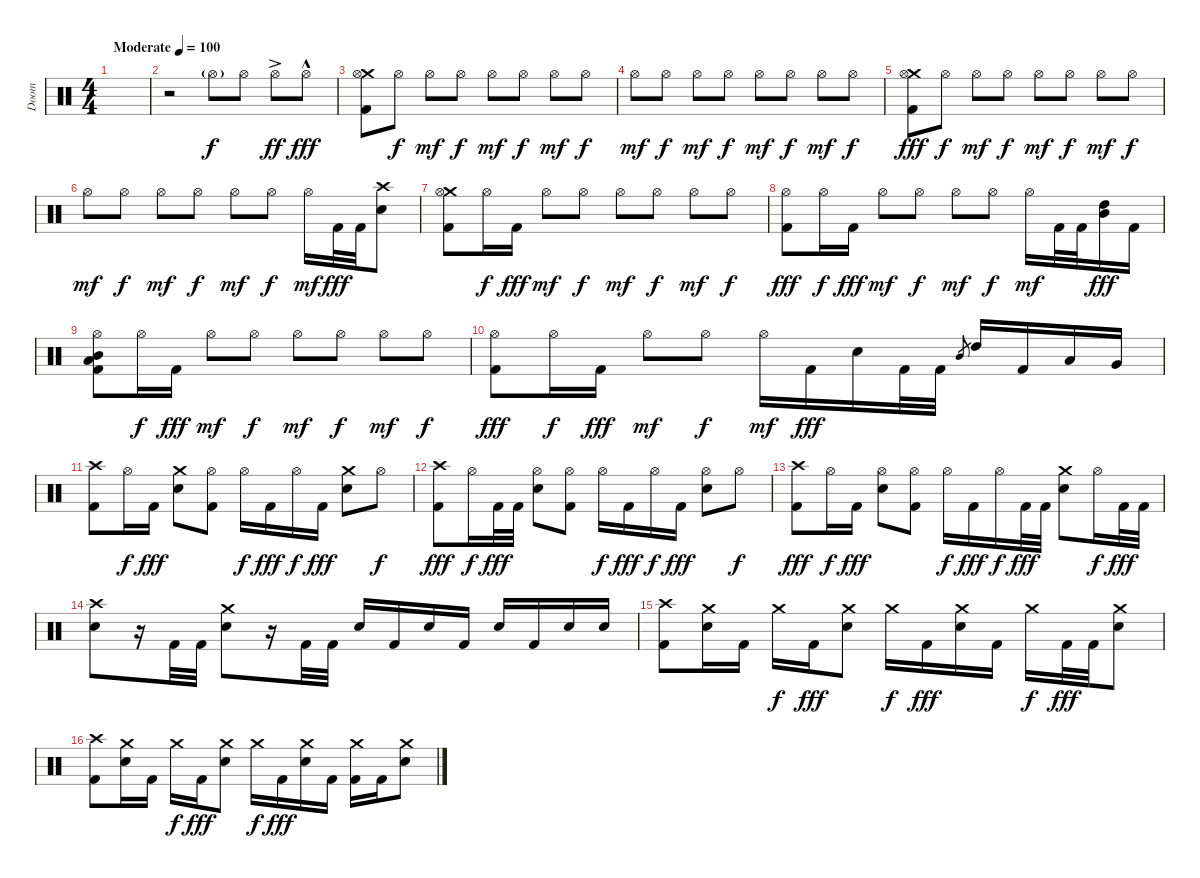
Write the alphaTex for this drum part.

\track ("Doom" "Doom") {instrument percussion}
\staff {score}
\articulation defaults
\ts (4 4)
\tempo (100 "Moderate")
\clef neutral
\ks c
|
r.2 "Hi-Hat (open)"{g}.8 "Hi-Hat (open)".8{dy f} "Hi-Hat (open)"{ac}.8{dy ff} "Hi-Hat (open)"{hac}.8{dy fff} |
("Crash medium (hit)" "Hi-Hat (open)" "Kick (hit) 2").8 "Hi-Hat (open)".8{dy f} "Hi-Hat (open)".8{dy mf} "Hi-Hat (open)".8{dy f} "Hi-Hat (open)".8{dy mf} "Hi-Hat (open)".8{dy f} "Hi-Hat (open)".8{dy mf} "Hi-Hat (open)".8{dy f} |
"Hi-Hat (open)".8{dy mf} "Hi-Hat (open)".8{dy f} "Hi-Hat (open)".8{dy mf} "Hi-Hat (open)".8{dy f} "Hi-Hat (open)".8{dy mf} "Hi-Hat (open)".8{dy f} "Hi-Hat (open)".8{dy mf} "Hi-Hat (open)".8{dy f} |
("Crash medium (hit)" "Hi-Hat (open)" "Kick (hit) 2").8{dy fff} "Hi-Hat (open)".8{dy f} "Hi-Hat (open)".8{dy mf} "Hi-Hat (open)".8{dy f} "Hi-Hat (open)".8{dy mf} "Hi-Hat (open)".8{dy f} "Hi-Hat (open)".8{dy mf} "Hi-Hat (open)".8{dy f} |
"Hi-Hat (open)".8{dy mf} "Hi-Hat (open)".8{dy f} "Hi-Hat (open)".8{dy mf} "Hi-Hat (open)".8{dy f} "Hi-Hat (open)".8{dy mf} "Hi-Hat (open)".8{dy f} "Hi-Hat (open)".16{dy mf} "Kick (hit) 2".32{dy fff} "Kick (hit) 2".32 ("Crash high (hit)" "Electric Snare (hit)").8 |
("Crash medium (hit)" "Hi-Hat (open)" "Kick (hit) 2").8 "Hi-Hat (open)".16{dy f} "Kick (hit) 2".16{dy fff} "Hi-Hat (open)".8{dy mf} "Hi-Hat (open)".8{dy f} "Hi-Hat (open)".8{dy mf} "Hi-Hat (open)".8{dy f} "Hi-Hat (open)".8{dy mf} "Hi-Hat (open)".8{dy f} |
("Hi-Hat (open)" "Kick (hit) 2").8{dy fff} "Hi-Hat (open)".16{dy f} "Kick (hit) 2".16{dy fff} "Hi-Hat (open)".8{dy mf} "Hi-Hat (open)".8{dy f} "Hi-Hat (open)".8{dy mf} "Hi-Hat (open)".8{dy f} "Hi-Hat (open)".16{dy mf} "Kick (hit) 2".32 "Kick (hit) 2".32 ("High Tom (hit)" "Mid Tom (hit)").16{dy fff} "Kick (hit) 2".16 |
("Hi-Hat (open)" "Mid Tom (hit)" "Low Tom (hit)" "Kick (hit) 2").8 "Hi-Hat (open)".16{dy f} "Kick (hit) 2".16{dy fff} "Hi-Hat (open)".8{dy mf} "Hi-Hat (open)".8{dy f} "Hi-Hat (open)".8{dy mf} "Hi-Hat (open)".8{dy f} "Hi-Hat (open)".8{dy mf} "Hi-Hat (open)".8{dy f} |
("Hi-Hat (open)" "Kick (hit) 2").8{dy fff} "Hi-Hat (open)".16{dy f} "Kick (hit) 2".16{dy fff} "Hi-Hat (open)".8{dy mf} "Hi-Hat (open)".8{dy f} "Hi-Hat (open)".16{dy mf} "Kick (hit) 2".16{dy fff} "Electric Snare (hit)".16 "Kick (hit) 2".32 "Kick (hit) 2".32 "Mid Tom (hit)".8{gr} "High Tom (hit)".16 "Kick (hit) 2".16 "Low Tom (hit)".16 "Very Low Tom (hit)".16 |
("Crash high (hit)" "Kick (hit) 2").8 "Hi-Hat (open)".16{dy f} "Kick (hit) 2".16{dy fff} ("Crash medium (hit)" "Electric Snare (hit)").8 ("Hi-Hat (open)" "Kick (hit) 2").8 "Hi-Hat (open)".16{dy f} "Kick (hit) 2".16{dy fff} "Hi-Hat (open)".16{dy f} "Kick (hit) 2".16{dy fff} ("Crash medium (hit)" "Electric Snare (hit)").8 "Hi-Hat (open)".8{dy f} |
("Crash high (hit)" "Kick (hit) 2").8{dy fff} "Hi-Hat (open)".16{dy f} "Kick (hit) 2".32{dy fff} "Kick (hit) 2".32 ("Hi-Hat (open)" "Electric Snare (hit)").8 ("Hi-Hat (open)" "Kick (hit) 2").8 "Hi-Hat (open)".16{dy f} "Kick (hit) 2".16{dy fff} "Hi-Hat (open)".16{dy f} "Kick (hit) 2".16{dy fff} ("Hi-Hat (open)" "Electric Snare (hit)").8 "Hi-Hat (open)".8{dy f} |
("Crash high (hit)" "Kick (hit) 2").8{dy fff} "Hi-Hat (open)".16{dy f} "Kick (hit) 2".16{dy fff} ("Hi-Hat (open)" "Electric Snare (hit)").8 ("Hi-Hat (open)" "Kick (hit) 2").8 "Hi-Hat (open)".16{dy f} "Kick (hit) 2".16{dy fff} "Hi-Hat (open)".16{dy f} "Kick (hit) 2".32{dy fff} "Kick (hit) 2".32 ("Crash medium (hit)" "Electric Snare (hit)").8 "Hi-Hat (open)".16{dy f} "Kick (hit) 2".32{dy fff} "Kick (hit) 2".32 |
("Crash high (hit)" "Electric Snare (hit)").8 r.16 "Kick (hit) 2".32 "Kick (hit) 2".32 ("Crash medium (hit)" "Electric Snare (hit)").8 r.16 "Kick (hit) 2".32 "Kick (hit) 2".32 "Electric Snare (hit)".16 "Kick (hit) 2".16 "Electric Snare (hit)".16 "Kick (hit) 2".16 "Electric Snare (hit)".16 "Kick (hit) 2".16 "Electric Snare (hit)".16 "Electric Snare (hit)".16 |
("Crash high (hit)" "Kick (hit) 2").8 ("Crash medium (hit)" "Electric Snare (hit)").16 "Kick (hit) 2".16 "Crash medium (hit)".16{dy f} "Kick (hit) 2".16{dy fff} ("Crash medium (hit)" "Electric Snare (hit)").8 "Crash medium (hit)".16{dy f} "Kick (hit) 2".16{dy fff} ("Crash medium (hit)" "Electric Snare (hit)").16 "Kick (hit) 2".16 "Crash medium (hit)".16{dy f} "Kick (hit) 2".32{dy fff} "Kick (hit) 2".32 ("Crash medium (hit)" "Electric Snare (hit)").8 |
("Crash high (hit)" "Kick (hit) 2").8 ("Crash medium (hit)" "Electric Snare (hit)").16 "Kick (hit) 2".16 "Crash medium (hit)".16{dy f} "Kick (hit) 2".16{dy fff} ("Crash medium (hit)" "Electric Snare (hit)").8 "Crash medium (hit)".16{dy f} "Kick (hit) 2".16{dy fff} ("Crash medium (hit)" "Electric Snare (hit)").16 "Kick (hit) 2".16 ("Crash medium (hit)" "Kick (hit) 2").16 "Kick (hit) 2".16 ("Crash medium (hit)" "Electric Snare (hit)").8
